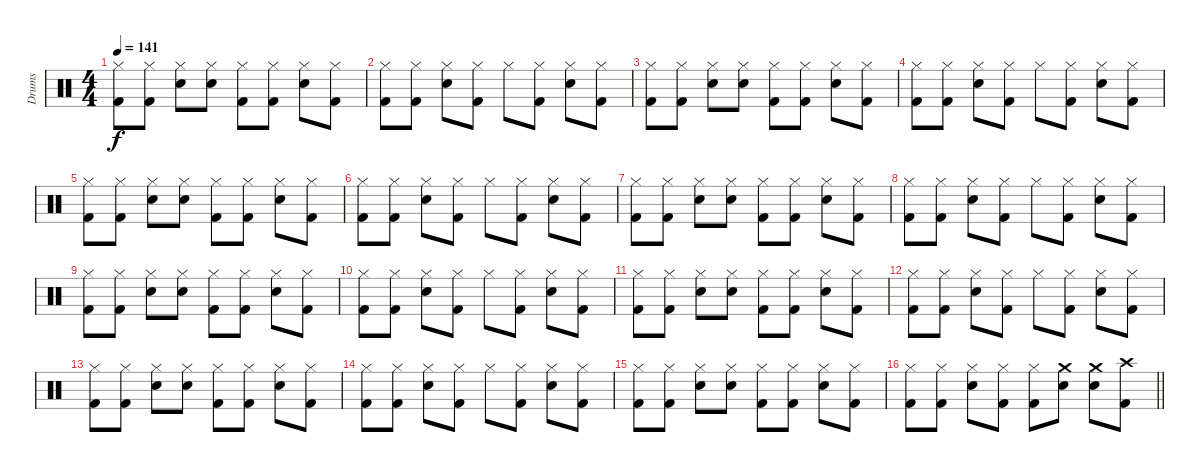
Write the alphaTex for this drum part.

\track ("Drums" "Drums") {instrument percussion}
\staff {score}
\articulation defaults
\ts (4 4)
\tempo 141
\clef neutral
\ks c
("Hi-Hat (closed)" "Kick (hit) 2").8{dy f} ("Hi-Hat (closed)" "Kick (hit) 2").8 ("Hi-Hat (closed)" "Electric Snare (hit)").8 ("Hi-Hat (closed)" "Electric Snare (hit)").8 ("Hi-Hat (closed)" "Kick (hit) 2").8 ("Hi-Hat (closed)" "Kick (hit) 2").8 ("Hi-Hat (closed)" "Electric Snare (hit)").8 ("Hi-Hat (closed)" "Kick (hit) 2").8 |
("Hi-Hat (closed)" "Kick (hit) 2").8 ("Hi-Hat (closed)" "Kick (hit) 2").8 ("Hi-Hat (closed)" "Electric Snare (hit)").8 ("Hi-Hat (closed)" "Kick (hit) 2").8 "Hi-Hat (closed)".8 ("Hi-Hat (closed)" "Kick (hit) 2").8 ("Hi-Hat (closed)" "Electric Snare (hit)").8 ("Hi-Hat (closed)" "Kick (hit) 2").8 |
("Hi-Hat (closed)" "Kick (hit) 2").8 ("Hi-Hat (closed)" "Kick (hit) 2").8 ("Hi-Hat (closed)" "Electric Snare (hit)").8 ("Hi-Hat (closed)" "Electric Snare (hit)").8 ("Hi-Hat (closed)" "Kick (hit) 2").8 ("Hi-Hat (closed)" "Kick (hit) 2").8 ("Hi-Hat (closed)" "Electric Snare (hit)").8 ("Hi-Hat (closed)" "Kick (hit) 2").8 |
("Hi-Hat (closed)" "Kick (hit) 2").8 ("Hi-Hat (closed)" "Kick (hit) 2").8 ("Hi-Hat (closed)" "Electric Snare (hit)").8 ("Hi-Hat (closed)" "Kick (hit) 2").8 "Hi-Hat (closed)".8 ("Hi-Hat (closed)" "Kick (hit) 2").8 ("Hi-Hat (closed)" "Electric Snare (hit)").8 ("Hi-Hat (closed)" "Kick (hit) 2").8 |
("Hi-Hat (closed)" "Kick (hit) 2").8 ("Hi-Hat (closed)" "Kick (hit) 2").8 ("Hi-Hat (closed)" "Electric Snare (hit)").8 ("Hi-Hat (closed)" "Electric Snare (hit)").8 ("Hi-Hat (closed)" "Kick (hit) 2").8 ("Hi-Hat (closed)" "Kick (hit) 2").8 ("Hi-Hat (closed)" "Electric Snare (hit)").8 ("Hi-Hat (closed)" "Kick (hit) 2").8 |
("Hi-Hat (closed)" "Kick (hit) 2").8 ("Hi-Hat (closed)" "Kick (hit) 2").8 ("Hi-Hat (closed)" "Electric Snare (hit)").8 ("Hi-Hat (closed)" "Kick (hit) 2").8 "Hi-Hat (closed)".8 ("Hi-Hat (closed)" "Kick (hit) 2").8 ("Hi-Hat (closed)" "Electric Snare (hit)").8 ("Hi-Hat (closed)" "Kick (hit) 2").8 |
("Hi-Hat (closed)" "Kick (hit) 2").8 ("Hi-Hat (closed)" "Kick (hit) 2").8 ("Hi-Hat (closed)" "Electric Snare (hit)").8 ("Hi-Hat (closed)" "Electric Snare (hit)").8 ("Hi-Hat (closed)" "Kick (hit) 2").8 ("Hi-Hat (closed)" "Kick (hit) 2").8 ("Hi-Hat (closed)" "Electric Snare (hit)").8 ("Hi-Hat (closed)" "Kick (hit) 2").8 |
("Hi-Hat (closed)" "Kick (hit) 2").8 ("Hi-Hat (closed)" "Kick (hit) 2").8 ("Hi-Hat (closed)" "Electric Snare (hit)").8 ("Hi-Hat (closed)" "Kick (hit) 2").8 "Hi-Hat (closed)".8 ("Hi-Hat (closed)" "Kick (hit) 2").8 ("Hi-Hat (closed)" "Electric Snare (hit)").8 ("Hi-Hat (closed)" "Kick (hit) 2").8 |
("Hi-Hat (closed)" "Kick (hit) 2").8 ("Hi-Hat (closed)" "Kick (hit) 2").8 ("Hi-Hat (closed)" "Electric Snare (hit)").8 ("Hi-Hat (closed)" "Electric Snare (hit)").8 ("Hi-Hat (closed)" "Kick (hit) 2").8 ("Hi-Hat (closed)" "Kick (hit) 2").8 ("Hi-Hat (closed)" "Electric Snare (hit)").8 ("Hi-Hat (closed)" "Kick (hit) 2").8 |
("Hi-Hat (closed)" "Kick (hit) 2").8 ("Hi-Hat (closed)" "Kick (hit) 2").8 ("Hi-Hat (closed)" "Electric Snare (hit)").8 ("Hi-Hat (closed)" "Kick (hit) 2").8 "Hi-Hat (closed)".8 ("Hi-Hat (closed)" "Kick (hit) 2").8 ("Hi-Hat (closed)" "Electric Snare (hit)").8 ("Hi-Hat (closed)" "Kick (hit) 2").8 |
("Hi-Hat (closed)" "Kick (hit) 2").8 ("Hi-Hat (closed)" "Kick (hit) 2").8 ("Hi-Hat (closed)" "Electric Snare (hit)").8 ("Hi-Hat (closed)" "Electric Snare (hit)").8 ("Hi-Hat (closed)" "Kick (hit) 2").8 ("Hi-Hat (closed)" "Kick (hit) 2").8 ("Hi-Hat (closed)" "Electric Snare (hit)").8 ("Hi-Hat (closed)" "Kick (hit) 2").8 |
("Hi-Hat (closed)" "Kick (hit) 2").8 ("Hi-Hat (closed)" "Kick (hit) 2").8 ("Hi-Hat (closed)" "Electric Snare (hit)").8 ("Hi-Hat (closed)" "Kick (hit) 2").8 "Hi-Hat (closed)".8 ("Hi-Hat (closed)" "Kick (hit) 2").8 ("Hi-Hat (closed)" "Electric Snare (hit)").8 ("Hi-Hat (closed)" "Kick (hit) 2").8 |
("Hi-Hat (closed)" "Kick (hit) 2").8 ("Hi-Hat (closed)" "Kick (hit) 2").8 ("Hi-Hat (closed)" "Electric Snare (hit)").8 ("Hi-Hat (closed)" "Electric Snare (hit)").8 ("Hi-Hat (closed)" "Kick (hit) 2").8 ("Hi-Hat (closed)" "Kick (hit) 2").8 ("Hi-Hat (closed)" "Electric Snare (hit)").8 ("Hi-Hat (closed)" "Kick (hit) 2").8 |
("Hi-Hat (closed)" "Kick (hit) 2").8 ("Hi-Hat (closed)" "Kick (hit) 2").8 ("Hi-Hat (closed)" "Electric Snare (hit)").8 ("Hi-Hat (closed)" "Kick (hit) 2").8 "Hi-Hat (closed)".8 ("Hi-Hat (closed)" "Kick (hit) 2").8 ("Hi-Hat (closed)" "Electric Snare (hit)").8 ("Hi-Hat (closed)" "Kick (hit) 2").8 |
("Hi-Hat (closed)" "Kick (hit) 2").8 ("Hi-Hat (closed)" "Kick (hit) 2").8 ("Hi-Hat (closed)" "Electric Snare (hit)").8 ("Hi-Hat (closed)" "Electric Snare (hit)").8 ("Hi-Hat (closed)" "Kick (hit) 2").8 ("Hi-Hat (closed)" "Kick (hit) 2").8 ("Hi-Hat (closed)" "Electric Snare (hit)").8 ("Hi-Hat (closed)" "Kick (hit) 2").8 |
\barLineRight lightlight
("Hi-Hat (closed)" "Kick (hit) 2").8 ("Hi-Hat (closed)" "Kick (hit) 2").8 ("Hi-Hat (closed)" "Electric Snare (hit)").8 ("Hi-Hat (closed)" "Kick (hit) 2").8 ("Hi-Hat (closed)" "Kick (hit) 2").8 ("Crash medium (hit)" "Electric Snare (hit)").8 ("Crash medium (hit)" "Electric Snare (hit)").8 ("Crash high (hit)" "Kick (hit) 2").8
